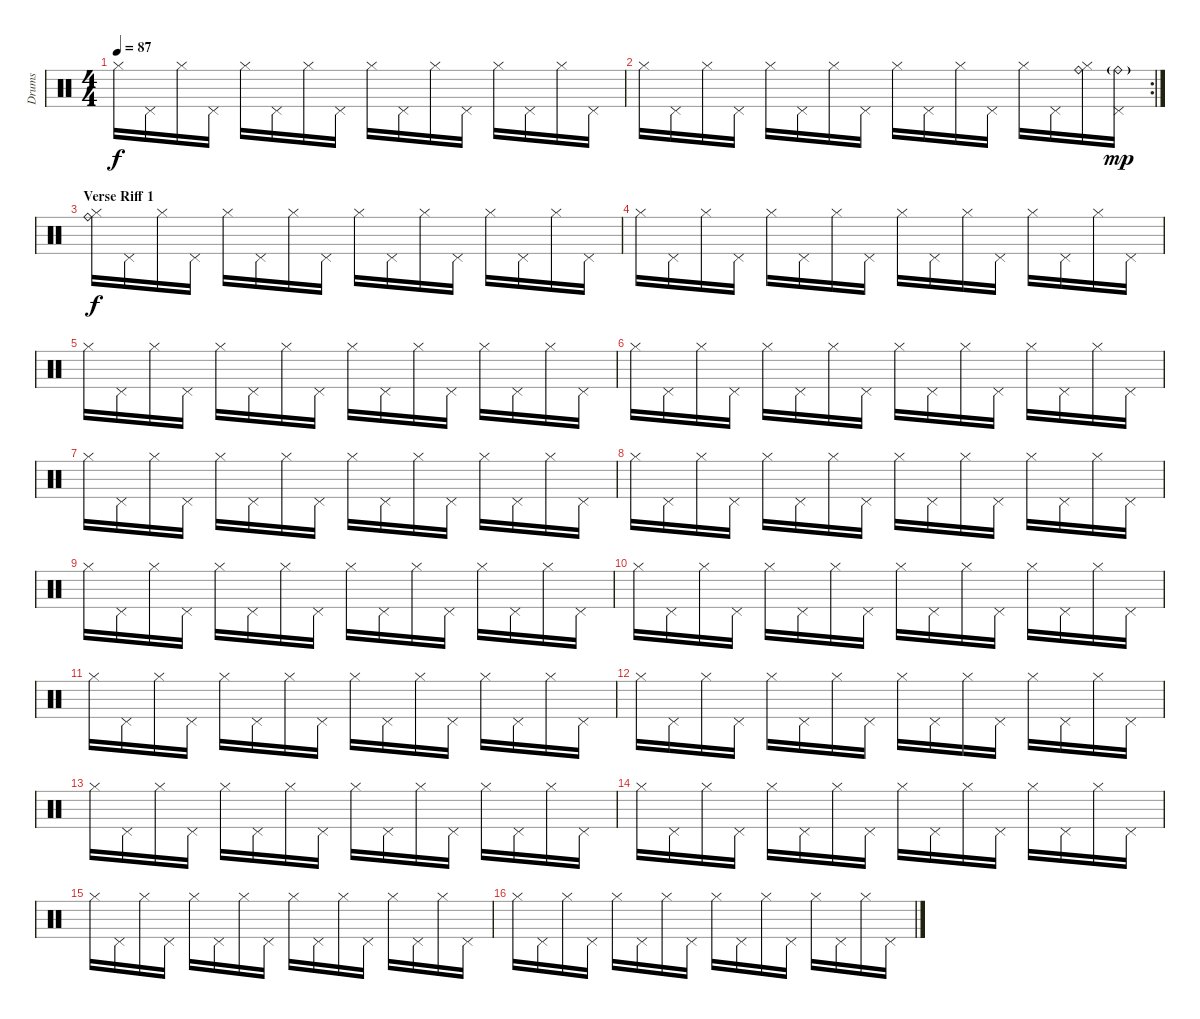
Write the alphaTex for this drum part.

\track ("Drums" "Drums") {instrument percussion}
\staff {score}
\articulation defaults
\ts (4 4)
\tempo 87
\clef neutral
\ks c "Hi-Hat (closed)".16{dy f} "Pedal Hi-Hat (hit)".16 "Hi-Hat (closed)".16 "Pedal Hi-Hat (hit)".16 "Hi-Hat (closed)".16 "Pedal Hi-Hat (hit)".16 "Hi-Hat (closed)".16 "Pedal Hi-Hat (hit)".16 "Hi-Hat (closed)".16 "Pedal Hi-Hat (hit)".16 "Hi-Hat (closed)".16 "Pedal Hi-Hat (hit)".16 "Hi-Hat (closed)".16 "Pedal Hi-Hat (hit)".16 "Hi-Hat (closed)".16 "Pedal Hi-Hat (hit)".16
|
\rc 2 "Hi-Hat (closed)".16 "Pedal Hi-Hat (hit)".16 "Hi-Hat (closed)".16 "Pedal Hi-Hat (hit)".16 "Hi-Hat (closed)".16 "Pedal Hi-Hat (hit)".16 "Hi-Hat (closed)".16 "Pedal Hi-Hat (hit)".16 "Hi-Hat (closed)".16 "Pedal Hi-Hat (hit)".16 "Hi-Hat (closed)".16 "Pedal Hi-Hat (hit)".16 "Hi-Hat (closed)".16 "Pedal Hi-Hat (hit)".16
("Hi-Hat (closed)" "Ride (bell)").16 ("Pedal Hi-Hat (hit)" "Ride (bell)"{g}).16{dy mp} |
\section ("" "Verse Riff 1")
("Hi-Hat (closed)" "Ride (bell)").16{dy f} "Pedal Hi-Hat (hit)".16 "Hi-Hat (closed)".16 "Pedal Hi-Hat (hit)".16 "Hi-Hat (closed)".16 "Pedal Hi-Hat (hit)".16 "Hi-Hat (closed)".16 "Pedal Hi-Hat (hit)".16 "Hi-Hat (closed)".16 "Pedal Hi-Hat (hit)".16 "Hi-Hat (closed)".16 "Pedal Hi-Hat (hit)".16 "Hi-Hat (closed)".16 "Pedal Hi-Hat (hit)".16 "Hi-Hat (closed)".16 "Pedal Hi-Hat (hit)".16 |
"Hi-Hat (closed)".16 "Pedal Hi-Hat (hit)".16 "Hi-Hat (closed)".16 "Pedal Hi-Hat (hit)".16 "Hi-Hat (closed)".16 "Pedal Hi-Hat (hit)".16 "Hi-Hat (closed)".16 "Pedal Hi-Hat (hit)".16 "Hi-Hat (closed)".16 "Pedal Hi-Hat (hit)".16 "Hi-Hat (closed)".16 "Pedal Hi-Hat (hit)".16 "Hi-Hat (closed)".16 "Pedal Hi-Hat (hit)".16 "Hi-Hat (closed)".16 "Pedal Hi-Hat (hit)".16 |
"Hi-Hat (closed)".16 "Pedal Hi-Hat (hit)".16 "Hi-Hat (closed)".16 "Pedal Hi-Hat (hit)".16 "Hi-Hat (closed)".16 "Pedal Hi-Hat (hit)".16 "Hi-Hat (closed)".16 "Pedal Hi-Hat (hit)".16 "Hi-Hat (closed)".16 "Pedal Hi-Hat (hit)".16 "Hi-Hat (closed)".16 "Pedal Hi-Hat (hit)".16 "Hi-Hat (closed)".16 "Pedal Hi-Hat (hit)".16 "Hi-Hat (closed)".16 "Pedal Hi-Hat (hit)".16 |
"Hi-Hat (closed)".16 "Pedal Hi-Hat (hit)".16 "Hi-Hat (closed)".16 "Pedal Hi-Hat (hit)".16 "Hi-Hat (closed)".16 "Pedal Hi-Hat (hit)".16 "Hi-Hat (closed)".16 "Pedal Hi-Hat (hit)".16 "Hi-Hat (closed)".16 "Pedal Hi-Hat (hit)".16 "Hi-Hat (closed)".16 "Pedal Hi-Hat (hit)".16 "Hi-Hat (closed)".16 "Pedal Hi-Hat (hit)".16 "Hi-Hat (closed)".16 "Pedal Hi-Hat (hit)".16 |
"Hi-Hat (closed)".16 "Pedal Hi-Hat (hit)".16 "Hi-Hat (closed)".16 "Pedal Hi-Hat (hit)".16 "Hi-Hat (closed)".16 "Pedal Hi-Hat (hit)".16 "Hi-Hat (closed)".16 "Pedal Hi-Hat (hit)".16 "Hi-Hat (closed)".16 "Pedal Hi-Hat (hit)".16 "Hi-Hat (closed)".16 "Pedal Hi-Hat (hit)".16 "Hi-Hat (closed)".16 "Pedal Hi-Hat (hit)".16 "Hi-Hat (closed)".16 "Pedal Hi-Hat (hit)".16 |
"Hi-Hat (closed)".16 "Pedal Hi-Hat (hit)".16 "Hi-Hat (closed)".16 "Pedal Hi-Hat (hit)".16 "Hi-Hat (closed)".16 "Pedal Hi-Hat (hit)".16 "Hi-Hat (closed)".16 "Pedal Hi-Hat (hit)".16 "Hi-Hat (closed)".16 "Pedal Hi-Hat (hit)".16 "Hi-Hat (closed)".16 "Pedal Hi-Hat (hit)".16 "Hi-Hat (closed)".16 "Pedal Hi-Hat (hit)".16 "Hi-Hat (closed)".16 "Pedal Hi-Hat (hit)".16 |
"Hi-Hat (closed)".16 "Pedal Hi-Hat (hit)".16 "Hi-Hat (closed)".16 "Pedal Hi-Hat (hit)".16 "Hi-Hat (closed)".16 "Pedal Hi-Hat (hit)".16 "Hi-Hat (closed)".16 "Pedal Hi-Hat (hit)".16 "Hi-Hat (closed)".16 "Pedal Hi-Hat (hit)".16 "Hi-Hat (closed)".16 "Pedal Hi-Hat (hit)".16 "Hi-Hat (closed)".16 "Pedal Hi-Hat (hit)".16 "Hi-Hat (closed)".16 "Pedal Hi-Hat (hit)".16 |
"Hi-Hat (closed)".16 "Pedal Hi-Hat (hit)".16 "Hi-Hat (closed)".16 "Pedal Hi-Hat (hit)".16 "Hi-Hat (closed)".16 "Pedal Hi-Hat (hit)".16 "Hi-Hat (closed)".16 "Pedal Hi-Hat (hit)".16 "Hi-Hat (closed)".16 "Pedal Hi-Hat (hit)".16 "Hi-Hat (closed)".16 "Pedal Hi-Hat (hit)".16 "Hi-Hat (closed)".16 "Pedal Hi-Hat (hit)".16 "Hi-Hat (closed)".16 "Pedal Hi-Hat (hit)".16 |
"Hi-Hat (closed)".16 "Pedal Hi-Hat (hit)".16 "Hi-Hat (closed)".16 "Pedal Hi-Hat (hit)".16 "Hi-Hat (closed)".16 "Pedal Hi-Hat (hit)".16 "Hi-Hat (closed)".16 "Pedal Hi-Hat (hit)".16 "Hi-Hat (closed)".16 "Pedal Hi-Hat (hit)".16 "Hi-Hat (closed)".16 "Pedal Hi-Hat (hit)".16 "Hi-Hat (closed)".16 "Pedal Hi-Hat (hit)".16 "Hi-Hat (closed)".16 "Pedal Hi-Hat (hit)".16 |
"Hi-Hat (closed)".16 "Pedal Hi-Hat (hit)".16 "Hi-Hat (closed)".16 "Pedal Hi-Hat (hit)".16 "Hi-Hat (closed)".16 "Pedal Hi-Hat (hit)".16 "Hi-Hat (closed)".16 "Pedal Hi-Hat (hit)".16 "Hi-Hat (closed)".16 "Pedal Hi-Hat (hit)".16 "Hi-Hat (closed)".16 "Pedal Hi-Hat (hit)".16 "Hi-Hat (closed)".16 "Pedal Hi-Hat (hit)".16 "Hi-Hat (closed)".16 "Pedal Hi-Hat (hit)".16 |
"Hi-Hat (closed)".16 "Pedal Hi-Hat (hit)".16 "Hi-Hat (closed)".16 "Pedal Hi-Hat (hit)".16 "Hi-Hat (closed)".16 "Pedal Hi-Hat (hit)".16 "Hi-Hat (closed)".16 "Pedal Hi-Hat (hit)".16 "Hi-Hat (closed)".16 "Pedal Hi-Hat (hit)".16 "Hi-Hat (closed)".16 "Pedal Hi-Hat (hit)".16 "Hi-Hat (closed)".16 "Pedal Hi-Hat (hit)".16 "Hi-Hat (closed)".16 "Pedal Hi-Hat (hit)".16 |
"Hi-Hat (closed)".16 "Pedal Hi-Hat (hit)".16 "Hi-Hat (closed)".16 "Pedal Hi-Hat (hit)".16 "Hi-Hat (closed)".16 "Pedal Hi-Hat (hit)".16 "Hi-Hat (closed)".16 "Pedal Hi-Hat (hit)".16 "Hi-Hat (closed)".16 "Pedal Hi-Hat (hit)".16 "Hi-Hat (closed)".16 "Pedal Hi-Hat (hit)".16 "Hi-Hat (closed)".16 "Pedal Hi-Hat (hit)".16 "Hi-Hat (closed)".16 "Pedal Hi-Hat (hit)".16 |
"Hi-Hat (closed)".16 "Pedal Hi-Hat (hit)".16 "Hi-Hat (closed)".16 "Pedal Hi-Hat (hit)".16 "Hi-Hat (closed)".16 "Pedal Hi-Hat (hit)".16 "Hi-Hat (closed)".16 "Pedal Hi-Hat (hit)".16 "Hi-Hat (closed)".16 "Pedal Hi-Hat (hit)".16 "Hi-Hat (closed)".16 "Pedal Hi-Hat (hit)".16 "Hi-Hat (closed)".16 "Pedal Hi-Hat (hit)".16 "Hi-Hat (closed)".16 "Pedal Hi-Hat (hit)".16 |
"Hi-Hat (closed)".16 "Pedal Hi-Hat (hit)".16 "Hi-Hat (closed)".16 "Pedal Hi-Hat (hit)".16 "Hi-Hat (closed)".16 "Pedal Hi-Hat (hit)".16 "Hi-Hat (closed)".16 "Pedal Hi-Hat (hit)".16 "Hi-Hat (closed)".16 "Pedal Hi-Hat (hit)".16 "Hi-Hat (closed)".16 "Pedal Hi-Hat (hit)".16 "Hi-Hat (closed)".16 "Pedal Hi-Hat (hit)".16 "Hi-Hat (closed)".16 "Pedal Hi-Hat (hit)".16
